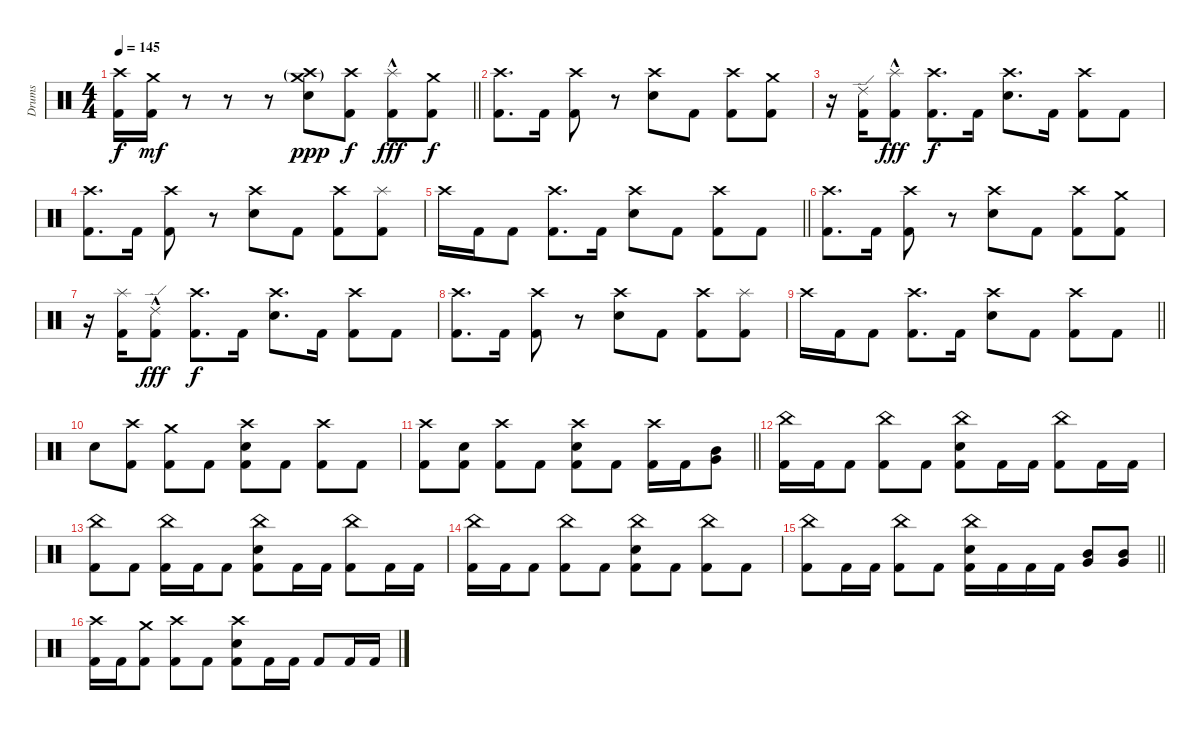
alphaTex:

\track ("Drums" "Drums") {instrument percussion}
\staff {score}
\articulation defaults
\ts (4 4)
\tempo 145
\clef neutral
\barLineRight lightlight
\ks c
("Crash high (hit)" "Kick (hit) 2").16{dy f} ("Crash medium (hit)" "Kick (hit) 2").16{dy mf} r.8 r.8 r.8 ("Crash high (hit)"{g} "Crash medium (hit)"{g} "Electric Snare (hit)").8{dy ppp} ("Crash high (hit)" "Kick (hit) 2").8{dy f} ("Splash (hit)"{hac} "Kick (hit) 2").8{dy fff} ("Crash medium (hit)" "Kick (hit) 2").8{dy f} |
("Crash high (hit)" "Kick (hit) 2").8{d} "Kick (hit) 2".16 ("Crash high (hit)" "Kick (hit) 2").8 r.8 ("Crash high (hit)" "Electric Snare (hit)").8 "Kick (hit) 2".8 ("Crash high (hit)" "Kick (hit) 2").8 ("Crash medium (hit)" "Kick (hit) 2").8 |
r.16 ("Ride (edge) 2" "Kick (hit) 2").16 ("Splash (hit)"{hac} "Kick (hit) 2").8{dy fff} ("Crash high (hit)" "Kick (hit) 2").8{d dy f} "Kick (hit) 2".16 ("Crash high (hit)" "Electric Snare (hit)").8{d} "Kick (hit) 2".16 ("Crash high (hit)" "Kick (hit) 2").8 "Kick (hit) 2".8 |
("Crash high (hit)" "Kick (hit) 2").8{d} "Kick (hit) 2".16 ("Crash high (hit)" "Kick (hit) 2").8 r.8 ("Crash high (hit)" "Electric Snare (hit)").8 "Kick (hit) 2".8 ("Crash high (hit)" "Kick (hit) 2").8 ("Splash (hit)" "Kick (hit) 2").8 |
\barLineRight lightlight "Crash high (hit)".16 "Kick (hit) 2".16 "Kick (hit) 2".8
("Crash high (hit)" "Kick (hit) 2").8{d} "Kick (hit) 2".16 ("Crash high (hit)" "Electric Snare (hit)").8 "Kick (hit) 2".8 ("Crash high (hit)" "Kick (hit) 2").8 "Kick (hit) 2".8 |
("Crash high (hit)" "Kick (hit) 2").8{d} "Kick (hit) 2".16 ("Crash high (hit)" "Kick (hit) 2").8 r.8 ("Crash high (hit)" "Electric Snare (hit)").8 "Kick (hit) 2".8 ("Crash high (hit)" "Kick (hit) 2").8 ("Crash medium (hit)" "Kick (hit) 2").8 |
r.16 ("Splash (hit)" "Kick (hit) 2").16 ("Ride (edge) 2"{hac} "Kick (hit) 2").8{dy fff} ("Crash high (hit)" "Kick (hit) 2").8{d dy f} "Kick (hit) 2".16 ("Crash high (hit)" "Electric Snare (hit)").8{d} "Kick (hit) 2".16 ("Crash high (hit)" "Kick (hit) 2").8 "Kick (hit) 2".8 |
("Crash high (hit)" "Kick (hit) 2").8{d} "Kick (hit) 2".16 ("Crash high (hit)" "Kick (hit) 2").8 r.8 ("Crash high (hit)" "Electric Snare (hit)").8 "Kick (hit) 2".8 ("Crash high (hit)" "Kick (hit) 2").8 ("Splash (hit)" "Kick (hit) 2").8 |
\barLineRight lightlight "Crash high (hit)".16 "Kick (hit) 2".16 "Kick (hit) 2".8
("Crash high (hit)" "Kick (hit) 2").8{d} "Kick (hit) 2".16 ("Crash high (hit)" "Electric Snare (hit)").8 "Kick (hit) 2".8 ("Crash high (hit)" "Kick (hit) 2").8 "Kick (hit) 2".8 |
"Electric Snare (hit)".8 ("Crash high (hit)" "Kick (hit) 2").8 ("Crash medium (hit)" "Kick (hit) 2").8 "Kick (hit) 2".8 ("Crash high (hit)" "Electric Snare (hit)" "Kick (hit) 2").8 "Kick (hit) 2".8 ("Crash high (hit)" "Kick (hit) 2").8 "Kick (hit) 2".8 |
\barLineRight lightlight
("Crash high (hit)" "Kick (hit) 2").8 ("Electric Snare (hit)" "Kick (hit) 2").8 ("Crash high (hit)" "Kick (hit) 2").8 "Kick (hit) 2".8 ("Crash high (hit)" "Electric Snare (hit)" "Kick (hit) 2").8 "Kick (hit) 2".8 ("Crash high (hit)" "Kick (hit) 2").16 "Kick (hit) 2".16 ("Mid Tom (hit)" "Very Low Tom (hit)").8 |
("China (hit)" "Kick (hit) 2").16 "Kick (hit) 2".16 "Kick (hit) 2".8 ("China (hit)" "Kick (hit) 2").8 "Kick (hit) 2".8 ("China (hit)" "Electric Snare (hit)" "Kick (hit) 2").8 "Kick (hit) 2".16 "Kick (hit) 2".16 ("China (hit)" "Kick (hit) 2").8 "Kick (hit) 2".16 "Kick (hit) 2".16 |
("China (hit)" "Kick (hit) 2").8 "Kick (hit) 2".8 ("China (hit)" "Kick (hit) 2").16 "Kick (hit) 2".16 "Kick (hit) 2".8 ("China (hit)" "Electric Snare (hit)" "Kick (hit) 2").8 "Kick (hit) 2".16 "Kick (hit) 2".16 ("China (hit)" "Kick (hit) 2").8 "Kick (hit) 2".16 "Kick (hit) 2".16 |
("China (hit)" "Kick (hit) 2").16 "Kick (hit) 2".16 "Kick (hit) 2".8 ("China (hit)" "Kick (hit) 2").8 "Kick (hit) 2".8 ("China (hit)" "Electric Snare (hit)" "Kick (hit) 2").8 "Kick (hit) 2".8 ("China (hit)" "Kick (hit) 2").8 "Kick (hit) 2".8 |
\barLineRight lightlight
("China (hit)" "Kick (hit) 2").8 "Kick (hit) 2".16 "Kick (hit) 2".16 ("China (hit)" "Kick (hit) 2").8 "Kick (hit) 2".8 ("China (hit)" "Electric Snare (hit)" "Kick (hit) 2").16 "Kick (hit) 2".16 "Kick (hit) 2".16 "Kick (hit) 2".16 ("Mid Tom (hit)" "Very Low Tom (hit)").8 ("Mid Tom (hit)" "Very Low Tom (hit)").8 |
("Crash high (hit)" "Kick (hit) 2").16 "Kick (hit) 2".16 ("Crash medium (hit)" "Kick (hit) 2").8 ("Crash high (hit)" "Kick (hit) 2").8 "Kick (hit) 2".8 ("Crash high (hit)" "Electric Snare (hit)" "Kick (hit) 2").8 "Kick (hit) 2".16 "Kick (hit) 2".16 "Kick (hit) 2".8 "Kick (hit) 2".16 "Kick (hit) 2".16
